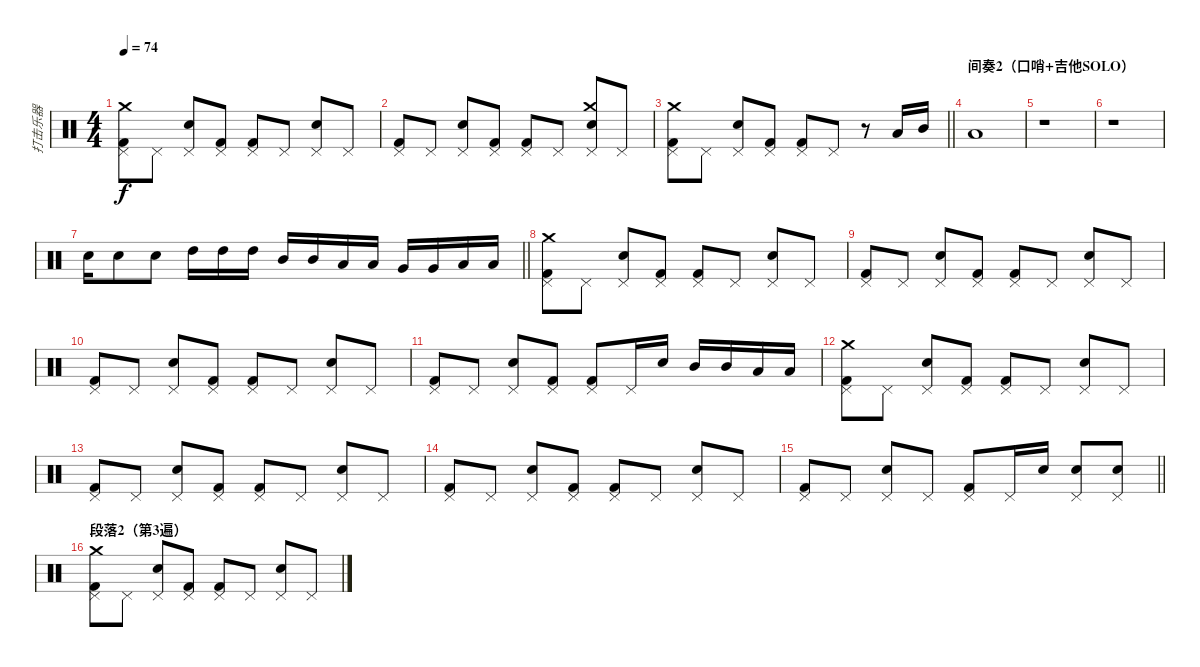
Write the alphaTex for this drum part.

\track ("打击乐器" "打击乐器") {instrument percussion}
\staff {score}
\articulation defaults
\ts (4 4)
\tempo 74
\clef neutral
\ks c
("Pedal Hi-Hat (hit)" "Kick (hit) 2" "Crash medium (hit)").8{dy f} "Pedal Hi-Hat (hit)".8 ("Pedal Hi-Hat (hit)" "Electric Snare (hit)").8 ("Pedal Hi-Hat (hit)" "Kick (hit) 2").8 ("Pedal Hi-Hat (hit)" "Kick (hit) 2").8 "Pedal Hi-Hat (hit)".8 ("Pedal Hi-Hat (hit)" "Electric Snare (hit)").8 "Pedal Hi-Hat (hit)".8 |
("Pedal Hi-Hat (hit)" "Kick (hit) 2").8 "Pedal Hi-Hat (hit)".8 ("Pedal Hi-Hat (hit)" "Electric Snare (hit)").8 ("Pedal Hi-Hat (hit)" "Kick (hit) 2").8 ("Pedal Hi-Hat (hit)" "Kick (hit) 2").8 "Pedal Hi-Hat (hit)".8 ("Pedal Hi-Hat (hit)" "Electric Snare (hit)" "Crash medium (hit)").8 "Pedal Hi-Hat (hit)".8 |
\barLineRight lightlight
("Pedal Hi-Hat (hit)" "Kick (hit) 2" "Crash medium (hit)").8 "Pedal Hi-Hat (hit)".8 ("Pedal Hi-Hat (hit)" "Electric Snare (hit)").8 ("Pedal Hi-Hat (hit)" "Kick (hit) 2").8 ("Pedal Hi-Hat (hit)" "Kick (hit) 2").8 "Pedal Hi-Hat (hit)".8 r.8 "Low Tom (hit)".16 "Mid Tom (hit)".16 |
\section ("" "间奏2（口哨+吉他SOLO）")
"Low Tom (hit)".1 |
r.1 |
r.1 |
\barLineRight lightlight "Electric Snare (hit)".16 "Electric Snare (hit)".8 "Electric Snare (hit)".8 "High Tom (hit)".16 "High Tom (hit)".16 "High Tom (hit)".16 "Mid Tom (hit)".16 "Mid Tom (hit)".16 "Low Tom (hit)".16 "Low Tom (hit)".16 "Very Low Tom (hit)".16 "Very Low Tom (hit)".16 "Low Floor Tom (hit)".16 "Low Floor Tom (hit)".16
|
("Pedal Hi-Hat (hit)" "Kick (hit) 2" "Crash medium (hit)").8 "Pedal Hi-Hat (hit)".8 ("Pedal Hi-Hat (hit)" "Electric Snare (hit)").8 ("Pedal Hi-Hat (hit)" "Kick (hit) 2").8 ("Pedal Hi-Hat (hit)" "Kick (hit) 2").8 "Pedal Hi-Hat (hit)".8 ("Pedal Hi-Hat (hit)" "Electric Snare (hit)").8 "Pedal Hi-Hat (hit)".8 |
("Pedal Hi-Hat (hit)" "Kick (hit) 2").8 "Pedal Hi-Hat (hit)".8 ("Pedal Hi-Hat (hit)" "Electric Snare (hit)").8 ("Pedal Hi-Hat (hit)" "Kick (hit) 2").8 ("Pedal Hi-Hat (hit)" "Kick (hit) 2").8 "Pedal Hi-Hat (hit)".8 ("Pedal Hi-Hat (hit)" "Electric Snare (hit)").8 "Pedal Hi-Hat (hit)".8 |
("Pedal Hi-Hat (hit)" "Kick (hit) 2").8 "Pedal Hi-Hat (hit)".8 ("Pedal Hi-Hat (hit)" "Electric Snare (hit)").8 ("Pedal Hi-Hat (hit)" "Kick (hit) 2").8 ("Pedal Hi-Hat (hit)" "Kick (hit) 2").8 "Pedal Hi-Hat (hit)".8 ("Pedal Hi-Hat (hit)" "Electric Snare (hit)").8 "Pedal Hi-Hat (hit)".8 |
("Pedal Hi-Hat (hit)" "Kick (hit) 2").8 "Pedal Hi-Hat (hit)".8 ("Pedal Hi-Hat (hit)" "Electric Snare (hit)").8 ("Pedal Hi-Hat (hit)" "Kick (hit) 2").8 ("Pedal Hi-Hat (hit)" "Kick (hit) 2").8 "Pedal Hi-Hat (hit)".16 "Electric Snare (hit)".16 "Mid Tom (hit)".16 "Mid Tom (hit)".16 "Low Tom (hit)".16 "Low Tom (hit)".16 |
("Pedal Hi-Hat (hit)" "Kick (hit) 2" "Crash medium (hit)").8 "Pedal Hi-Hat (hit)".8 ("Pedal Hi-Hat (hit)" "Electric Snare (hit)").8 ("Pedal Hi-Hat (hit)" "Kick (hit) 2").8 ("Pedal Hi-Hat (hit)" "Kick (hit) 2").8 "Pedal Hi-Hat (hit)".8 ("Pedal Hi-Hat (hit)" "Electric Snare (hit)").8 "Pedal Hi-Hat (hit)".8 |
("Pedal Hi-Hat (hit)" "Kick (hit) 2").8 "Pedal Hi-Hat (hit)".8 ("Pedal Hi-Hat (hit)" "Electric Snare (hit)").8 ("Pedal Hi-Hat (hit)" "Kick (hit) 2").8 ("Pedal Hi-Hat (hit)" "Kick (hit) 2").8 "Pedal Hi-Hat (hit)".8 ("Pedal Hi-Hat (hit)" "Electric Snare (hit)").8 "Pedal Hi-Hat (hit)".8 |
("Pedal Hi-Hat (hit)" "Kick (hit) 2").8 "Pedal Hi-Hat (hit)".8 ("Pedal Hi-Hat (hit)" "Electric Snare (hit)").8 ("Pedal Hi-Hat (hit)" "Kick (hit) 2").8 ("Pedal Hi-Hat (hit)" "Kick (hit) 2").8 "Pedal Hi-Hat (hit)".8 ("Pedal Hi-Hat (hit)" "Electric Snare (hit)").8 "Pedal Hi-Hat (hit)".8 |
\barLineRight lightlight
("Pedal Hi-Hat (hit)" "Kick (hit) 2").8 "Pedal Hi-Hat (hit)".8 ("Pedal Hi-Hat (hit)" "Electric Snare (hit)").8 "Pedal Hi-Hat (hit)".8 ("Pedal Hi-Hat (hit)" "Kick (hit) 2").8 "Pedal Hi-Hat (hit)".16 "Electric Snare (hit)".16 ("Pedal Hi-Hat (hit)" "Electric Snare (hit)").8 ("Pedal Hi-Hat (hit)" "Electric Snare (hit)").8 |
\section ("" "段落2（第3遍）")
("Pedal Hi-Hat (hit)" "Kick (hit) 2" "Crash medium (hit)").8 "Pedal Hi-Hat (hit)".8 ("Pedal Hi-Hat (hit)" "Electric Snare (hit)").8 ("Pedal Hi-Hat (hit)" "Kick (hit) 2").8 ("Pedal Hi-Hat (hit)" "Kick (hit) 2").8 "Pedal Hi-Hat (hit)".8 ("Pedal Hi-Hat (hit)" "Electric Snare (hit)").8 "Pedal Hi-Hat (hit)".8
